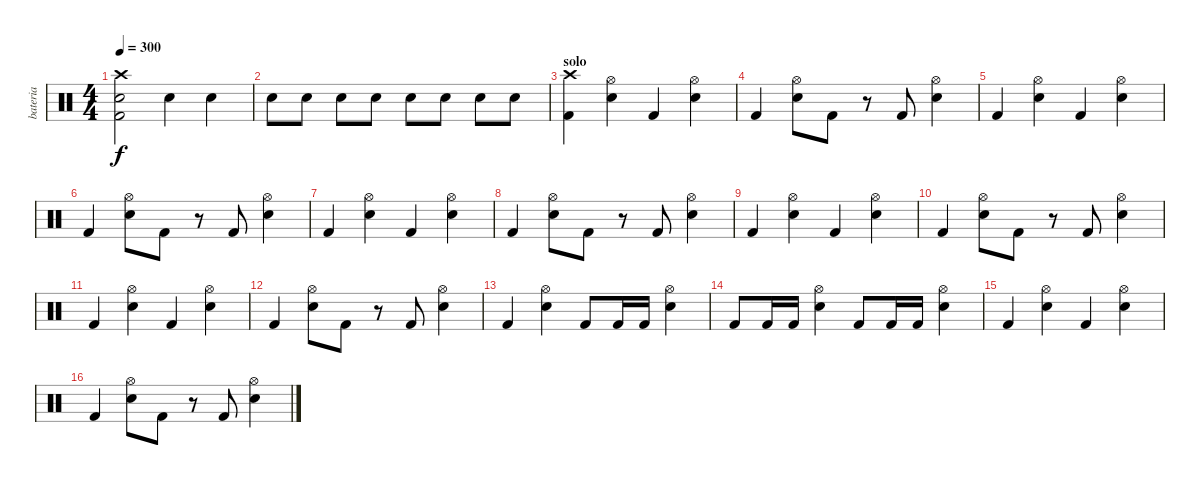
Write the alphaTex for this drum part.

\track ("bateria" "bateria") {instrument percussion}
\staff {score}
\articulation defaults
\ts (4 4)
\tempo 300
\clef neutral
\ks c
("Crash high (hit)" "Electric Snare (hit)" "Kick (hit) 2").2{dy f} "Electric Snare (hit)".4 "Electric Snare (hit)".4 |
"Electric Snare (hit)".8 "Electric Snare (hit)".8 "Electric Snare (hit)".8 "Electric Snare (hit)".8 "Electric Snare (hit)".8 "Electric Snare (hit)".8 "Electric Snare (hit)".8 "Electric Snare (hit)".8 |
\section ("" "solo")
("Crash high (hit)" "Kick (hit) 2").4 ("Electric Snare (hit)" "Hi-Hat (open)").4 "Kick (hit) 2".4 ("Electric Snare (hit)" "Hi-Hat (open)").4 |
"Kick (hit) 2".4 ("Electric Snare (hit)" "Hi-Hat (open)").8 "Kick (hit) 2".8 r.8 "Kick (hit) 2".8 ("Electric Snare (hit)" "Hi-Hat (open)").4 |
"Kick (hit) 2".4 ("Electric Snare (hit)" "Hi-Hat (open)").4 "Kick (hit) 2".4 ("Electric Snare (hit)" "Hi-Hat (open)").4 |
"Kick (hit) 2".4 ("Electric Snare (hit)" "Hi-Hat (open)").8 "Kick (hit) 2".8 r.8 "Kick (hit) 2".8 ("Electric Snare (hit)" "Hi-Hat (open)").4 |
"Kick (hit) 2".4 ("Electric Snare (hit)" "Hi-Hat (open)").4 "Kick (hit) 2".4 ("Electric Snare (hit)" "Hi-Hat (open)").4 |
"Kick (hit) 2".4 ("Electric Snare (hit)" "Hi-Hat (open)").8 "Kick (hit) 2".8 r.8 "Kick (hit) 2".8 ("Electric Snare (hit)" "Hi-Hat (open)").4 |
"Kick (hit) 2".4 ("Electric Snare (hit)" "Hi-Hat (open)").4 "Kick (hit) 2".4 ("Electric Snare (hit)" "Hi-Hat (open)").4 |
"Kick (hit) 2".4 ("Electric Snare (hit)" "Hi-Hat (open)").8 "Kick (hit) 2".8 r.8 "Kick (hit) 2".8 ("Electric Snare (hit)" "Hi-Hat (open)").4 |
"Kick (hit) 2".4 ("Electric Snare (hit)" "Hi-Hat (open)").4 "Kick (hit) 2".4 ("Electric Snare (hit)" "Hi-Hat (open)").4 |
"Kick (hit) 2".4 ("Electric Snare (hit)" "Hi-Hat (open)").8 "Kick (hit) 2".8 r.8 "Kick (hit) 2".8 ("Electric Snare (hit)" "Hi-Hat (open)").4 |
"Kick (hit) 2".4 ("Electric Snare (hit)" "Hi-Hat (open)").4 "Kick (hit) 2".8 "Kick (hit) 2".16 "Kick (hit) 2".16 ("Electric Snare (hit)" "Hi-Hat (open)").4 |
"Kick (hit) 2".8 "Kick (hit) 2".16 "Kick (hit) 2".16 ("Electric Snare (hit)" "Hi-Hat (open)").4 "Kick (hit) 2".8 "Kick (hit) 2".16 "Kick (hit) 2".16 ("Electric Snare (hit)" "Hi-Hat (open)").4 |
"Kick (hit) 2".4 ("Electric Snare (hit)" "Hi-Hat (open)").4 "Kick (hit) 2".4 ("Electric Snare (hit)" "Hi-Hat (open)").4 |
"Kick (hit) 2".4 ("Electric Snare (hit)" "Hi-Hat (open)").8 "Kick (hit) 2".8 r.8 "Kick (hit) 2".8 ("Electric Snare (hit)" "Hi-Hat (open)").4
